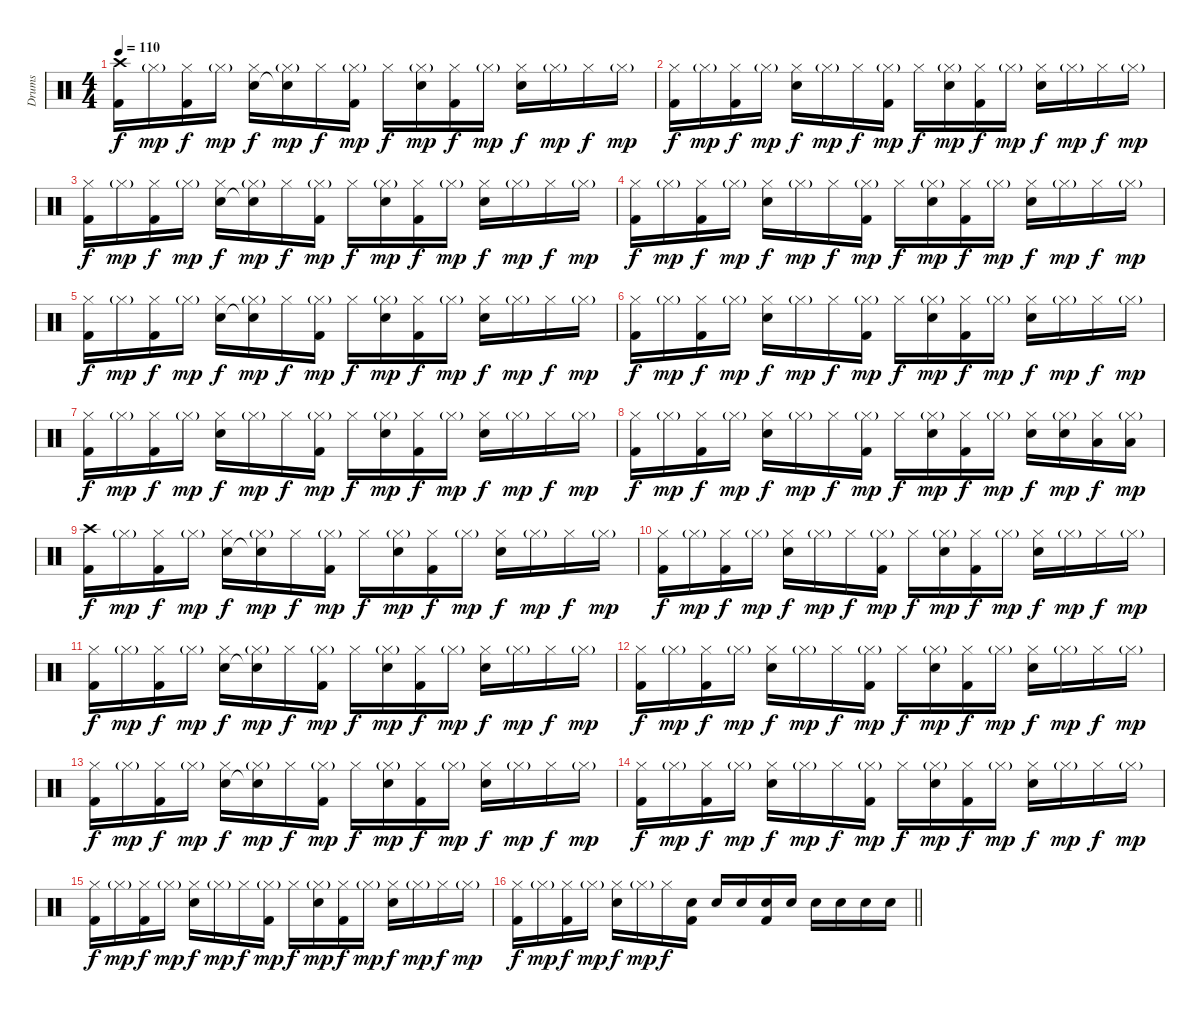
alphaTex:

\track ("Drums" "Drums") {instrument percussion}
\staff {score}
\articulation defaults
\ts (4 4)
\tempo 110
\clef neutral
\ks c
("Crash high (hit)" "Kick (hit) 2").16{dy f} "Hi-Hat (closed)"{g}.16{dy mp} ("Hi-Hat (closed)" "Kick (hit) 2").16{dy f} "Hi-Hat (closed)"{g}.16{dy mp} ("Hi-Hat (closed)" "Electric Snare (hit)").16{dy f} ("Hi-Hat (closed)"{g} "Snare (hit)"{t}).16{dy mp} "Hi-Hat (closed)".16{dy f} ("Hi-Hat (closed)"{g} "Kick (hit) 2").16{dy mp} "Hi-Hat (closed)".16{dy f} ("Hi-Hat (closed)"{g} "Electric Snare (hit)").16{dy mp} ("Hi-Hat (closed)" "Kick (hit) 2").16{dy f} "Hi-Hat (closed)"{g}.16{dy mp} ("Hi-Hat (closed)" "Electric Snare (hit)").16{dy f} "Hi-Hat (closed)"{g}.16{dy mp} "Hi-Hat (closed)".16{dy f} "Hi-Hat (closed)"{g}.16{dy mp} |
("Hi-Hat (closed)" "Kick (hit) 2").16{dy f} "Hi-Hat (closed)"{g}.16{dy mp} ("Hi-Hat (closed)" "Kick (hit) 2").16{dy f} "Hi-Hat (closed)"{g}.16{dy mp} ("Hi-Hat (closed)" "Electric Snare (hit)").16{dy f} "Hi-Hat (closed)"{g}.16{dy mp} "Hi-Hat (closed)".16{dy f} ("Hi-Hat (closed)"{g} "Kick (hit) 2").16{dy mp} "Hi-Hat (closed)".16{dy f} ("Hi-Hat (closed)"{g} "Electric Snare (hit)").16{dy mp} ("Hi-Hat (closed)" "Kick (hit) 2").16{dy f} "Hi-Hat (closed)"{g}.16{dy mp} ("Hi-Hat (closed)" "Electric Snare (hit)").16{dy f} "Hi-Hat (closed)"{g}.16{dy mp} "Hi-Hat (closed)".16{dy f} "Hi-Hat (closed)"{g}.16{dy mp} |
("Hi-Hat (closed)" "Kick (hit) 2").16{dy f} "Hi-Hat (closed)"{g}.16{dy mp} ("Hi-Hat (closed)" "Kick (hit) 2").16{dy f} "Hi-Hat (closed)"{g}.16{dy mp} ("Hi-Hat (closed)" "Electric Snare (hit)").16{dy f} ("Hi-Hat (closed)"{g} "Snare (hit)"{t}).16{dy mp} "Hi-Hat (closed)".16{dy f} ("Hi-Hat (closed)"{g} "Kick (hit) 2").16{dy mp} "Hi-Hat (closed)".16{dy f} ("Hi-Hat (closed)"{g} "Electric Snare (hit)").16{dy mp} ("Hi-Hat (closed)" "Kick (hit) 2").16{dy f} "Hi-Hat (closed)"{g}.16{dy mp} ("Hi-Hat (closed)" "Electric Snare (hit)").16{dy f} "Hi-Hat (closed)"{g}.16{dy mp} "Hi-Hat (closed)".16{dy f} "Hi-Hat (closed)"{g}.16{dy mp} |
("Hi-Hat (closed)" "Kick (hit) 2").16{dy f} "Hi-Hat (closed)"{g}.16{dy mp} ("Hi-Hat (closed)" "Kick (hit) 2").16{dy f} "Hi-Hat (closed)"{g}.16{dy mp} ("Hi-Hat (closed)" "Electric Snare (hit)").16{dy f} "Hi-Hat (closed)"{g}.16{dy mp} "Hi-Hat (closed)".16{dy f} ("Hi-Hat (closed)"{g} "Kick (hit) 2").16{dy mp} "Hi-Hat (closed)".16{dy f} ("Hi-Hat (closed)"{g} "Electric Snare (hit)").16{dy mp} ("Hi-Hat (closed)" "Kick (hit) 2").16{dy f} "Hi-Hat (closed)"{g}.16{dy mp} ("Hi-Hat (closed)" "Electric Snare (hit)").16{dy f} "Hi-Hat (closed)"{g}.16{dy mp} "Hi-Hat (closed)".16{dy f} "Hi-Hat (closed)"{g}.16{dy mp} |
("Hi-Hat (closed)" "Kick (hit) 2").16{dy f} "Hi-Hat (closed)"{g}.16{dy mp} ("Hi-Hat (closed)" "Kick (hit) 2").16{dy f} "Hi-Hat (closed)"{g}.16{dy mp} ("Hi-Hat (closed)" "Electric Snare (hit)").16{dy f} ("Hi-Hat (closed)"{g} "Snare (hit)"{t}).16{dy mp} "Hi-Hat (closed)".16{dy f} ("Hi-Hat (closed)"{g} "Kick (hit) 2").16{dy mp} "Hi-Hat (closed)".16{dy f} ("Hi-Hat (closed)"{g} "Electric Snare (hit)").16{dy mp} ("Hi-Hat (closed)" "Kick (hit) 2").16{dy f} "Hi-Hat (closed)"{g}.16{dy mp} ("Hi-Hat (closed)" "Electric Snare (hit)").16{dy f} "Hi-Hat (closed)"{g}.16{dy mp} "Hi-Hat (closed)".16{dy f} "Hi-Hat (closed)"{g}.16{dy mp} |
("Hi-Hat (closed)" "Kick (hit) 2").16{dy f} "Hi-Hat (closed)"{g}.16{dy mp} ("Hi-Hat (closed)" "Kick (hit) 2").16{dy f} "Hi-Hat (closed)"{g}.16{dy mp} ("Hi-Hat (closed)" "Electric Snare (hit)").16{dy f} "Hi-Hat (closed)"{g}.16{dy mp} "Hi-Hat (closed)".16{dy f} ("Hi-Hat (closed)"{g} "Kick (hit) 2").16{dy mp} "Hi-Hat (closed)".16{dy f} ("Hi-Hat (closed)"{g} "Electric Snare (hit)").16{dy mp} ("Hi-Hat (closed)" "Kick (hit) 2").16{dy f} "Hi-Hat (closed)"{g}.16{dy mp} ("Hi-Hat (closed)" "Electric Snare (hit)").16{dy f} "Hi-Hat (closed)"{g}.16{dy mp} "Hi-Hat (closed)".16{dy f} "Hi-Hat (closed)"{g}.16{dy mp} |
("Hi-Hat (closed)" "Kick (hit) 2").16{dy f} "Hi-Hat (closed)"{g}.16{dy mp} ("Hi-Hat (closed)" "Kick (hit) 2").16{dy f} "Hi-Hat (closed)"{g}.16{dy mp} ("Hi-Hat (closed)" "Electric Snare (hit)").16{dy f} "Hi-Hat (closed)"{g}.16{dy mp} "Hi-Hat (closed)".16{dy f} ("Hi-Hat (closed)"{g} "Kick (hit) 2").16{dy mp} "Hi-Hat (closed)".16{dy f} ("Hi-Hat (closed)"{g} "Electric Snare (hit)").16{dy mp} ("Hi-Hat (closed)" "Kick (hit) 2").16{dy f} "Hi-Hat (closed)"{g}.16{dy mp} ("Hi-Hat (closed)" "Electric Snare (hit)").16{dy f} "Hi-Hat (closed)"{g}.16{dy mp} "Hi-Hat (closed)".16{dy f} "Hi-Hat (closed)"{g}.16{dy mp} |
("Hi-Hat (closed)" "Kick (hit) 2").16{dy f} "Hi-Hat (closed)"{g}.16{dy mp} ("Hi-Hat (closed)" "Kick (hit) 2").16{dy f} "Hi-Hat (closed)"{g}.16{dy mp} ("Hi-Hat (closed)" "Electric Snare (hit)").16{dy f} "Hi-Hat (closed)"{g}.16{dy mp} "Hi-Hat (closed)".16{dy f} ("Hi-Hat (closed)"{g} "Kick (hit) 2").16{dy mp} "Hi-Hat (closed)".16{dy f} ("Hi-Hat (closed)"{g} "Electric Snare (hit)").16{dy mp} ("Hi-Hat (closed)" "Kick (hit) 2").16{dy f} "Hi-Hat (closed)"{g}.16{dy mp} ("Hi-Hat (closed)" "Electric Snare (hit)").16{dy f} ("Hi-Hat (closed)"{g} "Electric Snare (hit)").16{dy mp} ("Hi-Hat (closed)" "Low Tom (hit)").16{dy f} ("Hi-Hat (closed)"{g} "Low Tom (hit)").16{dy mp} |
("Crash high (hit)" "Kick (hit) 2").16{dy f} "Hi-Hat (closed)"{g}.16{dy mp} ("Hi-Hat (closed)" "Kick (hit) 2").16{dy f} "Hi-Hat (closed)"{g}.16{dy mp} ("Hi-Hat (closed)" "Electric Snare (hit)").16{dy f} ("Hi-Hat (closed)"{g} "Snare (hit)"{t}).16{dy mp} "Hi-Hat (closed)".16{dy f} ("Hi-Hat (closed)"{g} "Kick (hit) 2").16{dy mp} "Hi-Hat (closed)".16{dy f} ("Hi-Hat (closed)"{g} "Electric Snare (hit)").16{dy mp} ("Hi-Hat (closed)" "Kick (hit) 2").16{dy f} "Hi-Hat (closed)"{g}.16{dy mp} ("Hi-Hat (closed)" "Electric Snare (hit)").16{dy f} "Hi-Hat (closed)"{g}.16{dy mp} "Hi-Hat (closed)".16{dy f} "Hi-Hat (closed)"{g}.16{dy mp} |
("Hi-Hat (closed)" "Kick (hit) 2").16{dy f} "Hi-Hat (closed)"{g}.16{dy mp} ("Hi-Hat (closed)" "Kick (hit) 2").16{dy f} "Hi-Hat (closed)"{g}.16{dy mp} ("Hi-Hat (closed)" "Electric Snare (hit)").16{dy f} "Hi-Hat (closed)"{g}.16{dy mp} "Hi-Hat (closed)".16{dy f} ("Hi-Hat (closed)"{g} "Kick (hit) 2").16{dy mp} "Hi-Hat (closed)".16{dy f} ("Hi-Hat (closed)"{g} "Electric Snare (hit)").16{dy mp} ("Hi-Hat (closed)" "Kick (hit) 2").16{dy f} "Hi-Hat (closed)"{g}.16{dy mp} ("Hi-Hat (closed)" "Electric Snare (hit)").16{dy f} "Hi-Hat (closed)"{g}.16{dy mp} "Hi-Hat (closed)".16{dy f} "Hi-Hat (closed)"{g}.16{dy mp} |
("Hi-Hat (closed)" "Kick (hit) 2").16{dy f} "Hi-Hat (closed)"{g}.16{dy mp} ("Hi-Hat (closed)" "Kick (hit) 2").16{dy f} "Hi-Hat (closed)"{g}.16{dy mp} ("Hi-Hat (closed)" "Electric Snare (hit)").16{dy f} ("Hi-Hat (closed)"{g} "Snare (hit)"{t}).16{dy mp} "Hi-Hat (closed)".16{dy f} ("Hi-Hat (closed)"{g} "Kick (hit) 2").16{dy mp} "Hi-Hat (closed)".16{dy f} ("Hi-Hat (closed)"{g} "Electric Snare (hit)").16{dy mp} ("Hi-Hat (closed)" "Kick (hit) 2").16{dy f} "Hi-Hat (closed)"{g}.16{dy mp} ("Hi-Hat (closed)" "Electric Snare (hit)").16{dy f} "Hi-Hat (closed)"{g}.16{dy mp} "Hi-Hat (closed)".16{dy f} "Hi-Hat (closed)"{g}.16{dy mp} |
("Hi-Hat (closed)" "Kick (hit) 2").16{dy f} "Hi-Hat (closed)"{g}.16{dy mp} ("Hi-Hat (closed)" "Kick (hit) 2").16{dy f} "Hi-Hat (closed)"{g}.16{dy mp} ("Hi-Hat (closed)" "Electric Snare (hit)").16{dy f} "Hi-Hat (closed)"{g}.16{dy mp} "Hi-Hat (closed)".16{dy f} ("Hi-Hat (closed)"{g} "Kick (hit) 2").16{dy mp} "Hi-Hat (closed)".16{dy f} ("Hi-Hat (closed)"{g} "Electric Snare (hit)").16{dy mp} ("Hi-Hat (closed)" "Kick (hit) 2").16{dy f} "Hi-Hat (closed)"{g}.16{dy mp} ("Hi-Hat (closed)" "Electric Snare (hit)").16{dy f} "Hi-Hat (closed)"{g}.16{dy mp} "Hi-Hat (closed)".16{dy f} "Hi-Hat (closed)"{g}.16{dy mp} |
("Hi-Hat (closed)" "Kick (hit) 2").16{dy f} "Hi-Hat (closed)"{g}.16{dy mp} ("Hi-Hat (closed)" "Kick (hit) 2").16{dy f} "Hi-Hat (closed)"{g}.16{dy mp} ("Hi-Hat (closed)" "Electric Snare (hit)").16{dy f} ("Hi-Hat (closed)"{g} "Snare (hit)"{t}).16{dy mp} "Hi-Hat (closed)".16{dy f} ("Hi-Hat (closed)"{g} "Kick (hit) 2").16{dy mp} "Hi-Hat (closed)".16{dy f} ("Hi-Hat (closed)"{g} "Electric Snare (hit)").16{dy mp} ("Hi-Hat (closed)" "Kick (hit) 2").16{dy f} "Hi-Hat (closed)"{g}.16{dy mp} ("Hi-Hat (closed)" "Electric Snare (hit)").16{dy f} "Hi-Hat (closed)"{g}.16{dy mp} "Hi-Hat (closed)".16{dy f} "Hi-Hat (closed)"{g}.16{dy mp} |
("Hi-Hat (closed)" "Kick (hit) 2").16{dy f} "Hi-Hat (closed)"{g}.16{dy mp} ("Hi-Hat (closed)" "Kick (hit) 2").16{dy f} "Hi-Hat (closed)"{g}.16{dy mp} ("Hi-Hat (closed)" "Electric Snare (hit)").16{dy f} "Hi-Hat (closed)"{g}.16{dy mp} "Hi-Hat (closed)".16{dy f} ("Hi-Hat (closed)"{g} "Kick (hit) 2").16{dy mp} "Hi-Hat (closed)".16{dy f} ("Hi-Hat (closed)"{g} "Electric Snare (hit)").16{dy mp} ("Hi-Hat (closed)" "Kick (hit) 2").16{dy f} "Hi-Hat (closed)"{g}.16{dy mp} ("Hi-Hat (closed)" "Electric Snare (hit)").16{dy f} "Hi-Hat (closed)"{g}.16{dy mp} "Hi-Hat (closed)".16{dy f} "Hi-Hat (closed)"{g}.16{dy mp} |
("Hi-Hat (closed)" "Kick (hit) 2").16{dy f} "Hi-Hat (closed)"{g}.16{dy mp} ("Hi-Hat (closed)" "Kick (hit) 2").16{dy f} "Hi-Hat (closed)"{g}.16{dy mp} ("Hi-Hat (closed)" "Electric Snare (hit)").16{dy f} "Hi-Hat (closed)"{g}.16{dy mp} "Hi-Hat (closed)".16{dy f} ("Hi-Hat (closed)"{g} "Kick (hit) 2").16{dy mp} "Hi-Hat (closed)".16{dy f} ("Hi-Hat (closed)"{g} "Electric Snare (hit)").16{dy mp} ("Hi-Hat (closed)" "Kick (hit) 2").16{dy f} "Hi-Hat (closed)"{g}.16{dy mp} ("Hi-Hat (closed)" "Electric Snare (hit)").16{dy f} "Hi-Hat (closed)"{g}.16{dy mp} "Hi-Hat (closed)".16{dy f} "Hi-Hat (closed)"{g}.16{dy mp} |
\barLineRight lightlight
("Hi-Hat (closed)" "Kick (hit) 2").16{dy f} "Hi-Hat (closed)"{g}.16{dy mp} ("Hi-Hat (closed)" "Kick (hit) 2").16{dy f} "Hi-Hat (closed)"{g}.16{dy mp} ("Hi-Hat (closed)" "Electric Snare (hit)").16{dy f} "Hi-Hat (closed)"{g}.16{dy mp} "Hi-Hat (closed)".16{dy f} ("Electric Snare (hit)" "Kick (hit) 2").16 "Electric Snare (hit)".16 "Electric Snare (hit)".16 ("Electric Snare (hit)" "Kick (hit) 2").16 "Electric Snare (hit)".16 "Electric Snare (hit)".16 "Electric Snare (hit)".16 "Electric Snare (hit)".16 "Electric Snare (hit)".16
